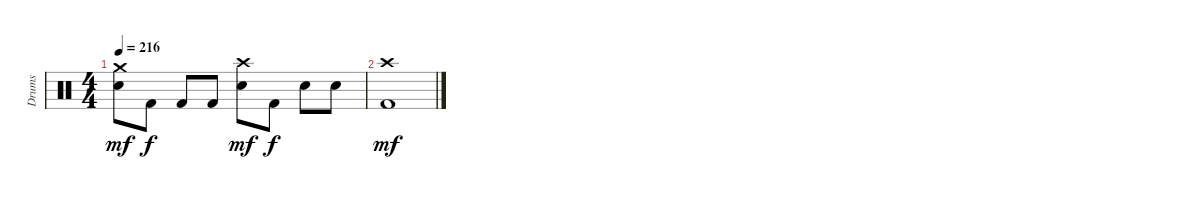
\track ("Drums" "Drums") {instrument percussion}
\staff {score}
\articulation defaults
\ts (4 4)
\tempo 216
\clef neutral
\ks c
("Snare (hit) 2" "Crash medium (hit)").8{dy mf} "Kick (hit) 2".8{dy f} "Kick (hit) 2".8 "Kick (hit) 2".8 ("Snare (hit) 2" "Crash high (hit)").8{dy mf} "Kick (hit) 2".8{dy f} "Snare (hit) 2".8 "Snare (hit) 2".8 |
("Kick (hit) 2" "Crash high (hit)").1{dy mf}
